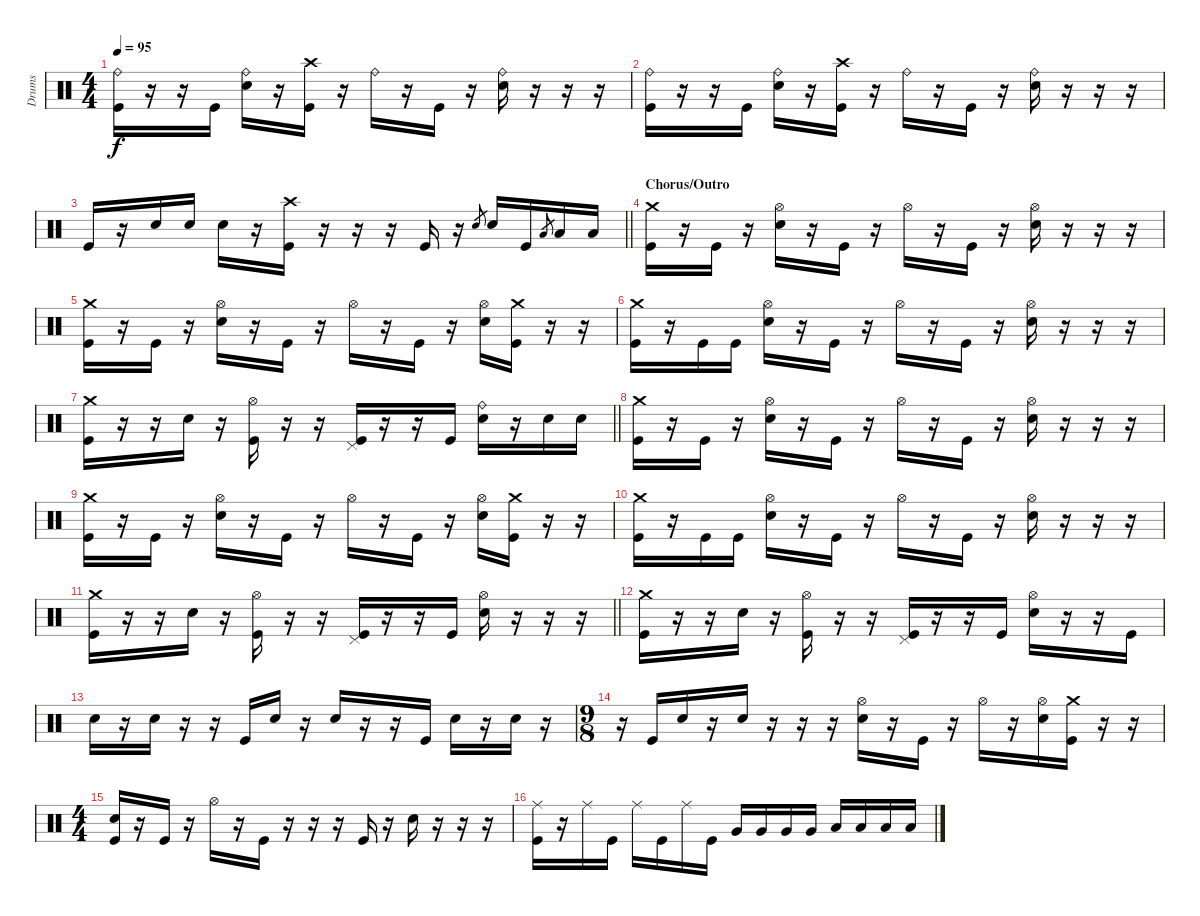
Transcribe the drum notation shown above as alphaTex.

\track ("Drums" "Drums") {instrument percussion}
\staff {score}
\articulation defaults
\ts (4 4)
\tempo 95
\clef neutral
\ks c
("Ride (bell)" "Kick (hit)").16{dy f} r.16 r.16 "Kick (hit)".16 ("Ride (bell)" "Electric Snare (hit)").16 r.16 ("Crash high (hit)" "Kick (hit)").16 r.16 "Ride (bell)".16 r.16 "Kick (hit)".16 r.16 ("Ride (bell)" "Electric Snare (hit)").16 r.16 r.16 r.16 |
("Ride (bell)" "Kick (hit)").16 r.16 r.16 "Kick (hit)".16 ("Ride (bell)" "Electric Snare (hit)").16 r.16 ("Crash high (hit)" "Kick (hit)").16 r.16 "Ride (bell)".16 r.16 "Kick (hit)".16 r.16 ("Ride (bell)" "Electric Snare (hit)").16 r.16 r.16 r.16 |
\barLineRight lightlight "Kick (hit)".16
r.16 "Electric Snare (hit)".16 "Electric Snare (hit)".16 "Electric Snare (hit)".16 r.16 ("Crash high (hit)" "Kick (hit)").16 r.16 r.16 r.16 "Kick (hit)".16 r.16 "Electric Snare (hit)".8{gr} "Electric Snare (hit)".16 "Kick (hit)".16 "Low Floor Tom (hit)".8{gr} "Low Floor Tom (hit)".16 "Low Floor Tom (hit)".16 |
\section ("" "Chorus/Outro")
("Crash medium (hit)" "Kick (hit)").16 r.16 "Kick (hit)".16 r.16 ("Hi-Hat (open)" "Electric Snare (hit)").16 r.16 "Kick (hit)".16 r.16 "Hi-Hat (open)".16 r.16 "Kick (hit)".16 r.16 ("Hi-Hat (open)" "Electric Snare (hit)").16 r.16 r.16 r.16 |
("Crash medium (hit)" "Kick (hit)").16 r.16 "Kick (hit)".16 r.16 ("Hi-Hat (open)" "Electric Snare (hit)").16 r.16 "Kick (hit)".16 r.16 "Hi-Hat (open)".16 r.16 "Kick (hit)".16 r.16 ("Hi-Hat (open)" "Electric Snare (hit)").16 ("Crash medium (hit)" "Kick (hit)").16 r.16 r.16 |
("Crash medium (hit)" "Kick (hit)").16 r.16 "Kick (hit)".16 "Kick (hit)".16 ("Hi-Hat (open)" "Electric Snare (hit)").16 r.16 "Kick (hit)".16 r.16 "Hi-Hat (open)".16 r.16 "Kick (hit)".16 r.16 ("Hi-Hat (open)" "Electric Snare (hit)").16 r.16 r.16 r.16 |
\barLineRight lightlight
("Crash medium (hit)" "Kick (hit)").16 r.16 r.16 "Electric Snare (hit)".16 r.16 ("Hi-Hat (open)" "Kick (hit)").16 r.16 r.16 ("Pedal Hi-Hat (hit)" "Kick (hit)").16 r.16 r.16 "Kick (hit)".16 ("Ride (bell)" "Electric Snare (hit)").16 r.16 "Electric Snare (hit)".16 "Electric Snare (hit)".16 |
("Crash medium (hit)" "Kick (hit)").16 r.16 "Kick (hit)".16 r.16 ("Hi-Hat (open)" "Electric Snare (hit)").16 r.16 "Kick (hit)".16 r.16 "Hi-Hat (open)".16 r.16 "Kick (hit)".16 r.16 ("Hi-Hat (open)" "Electric Snare (hit)").16 r.16 r.16 r.16 |
("Crash medium (hit)" "Kick (hit)").16 r.16 "Kick (hit)".16 r.16 ("Hi-Hat (open)" "Electric Snare (hit)").16 r.16 "Kick (hit)".16 r.16 "Hi-Hat (open)".16 r.16 "Kick (hit)".16 r.16 ("Hi-Hat (open)" "Electric Snare (hit)").16 ("Crash medium (hit)" "Kick (hit)").16 r.16 r.16 |
("Crash medium (hit)" "Kick (hit)").16 r.16 "Kick (hit)".16 "Kick (hit)".16 ("Hi-Hat (open)" "Electric Snare (hit)").16 r.16 "Kick (hit)".16 r.16 "Hi-Hat (open)".16 r.16 "Kick (hit)".16 r.16 ("Hi-Hat (open)" "Electric Snare (hit)").16 r.16 r.16 r.16 |
\barLineRight lightlight
("Crash medium (hit)" "Kick (hit)").16 r.16 r.16 "Electric Snare (hit)".16 r.16 ("Hi-Hat (open)" "Kick (hit)").16 r.16 r.16 ("Pedal Hi-Hat (hit)" "Kick (hit)").16 r.16 r.16 "Kick (hit)".16 ("Hi-Hat (open)" "Electric Snare (hit)").16 r.16 r.16 r.16 |
("Crash medium (hit)" "Kick (hit)").16 r.16 r.16 "Electric Snare (hit)".16 r.16 ("Hi-Hat (open)" "Kick (hit)").16 r.16 r.16 ("Pedal Hi-Hat (hit)" "Kick (hit)").16 r.16 r.16 "Kick (hit)".16 ("Hi-Hat (open)" "Electric Snare (hit)").16 r.16 r.16 "Kick (hit)".16 |
"Electric Snare (hit)".16 r.16 "Electric Snare (hit)".16 r.16 r.16 "Kick (hit)".16 "Electric Snare (hit)".16 r.16 "Electric Snare (hit)".16 r.16 r.16 "Kick (hit)".16 "Electric Snare (hit)".16 r.16 "Electric Snare (hit)".16 r.16 |
\ts (9 8)
r.16 "Kick (hit)".16 "Electric Snare (hit)".16 r.16 "Electric Snare (hit)".16 r.16 r.16 r.16 ("Hi-Hat (open)" "Electric Snare (hit)").16 r.16 "Kick (hit)".16 r.16 "Hi-Hat (open)".16 r.16 ("Hi-Hat (open)" "Electric Snare (hit)").16 ("Crash medium (hit)" "Kick (hit)").16 r.16 r.16 |
\ts (4 4)
("Electric Snare (hit)" "Kick (hit)").16 r.16 "Kick (hit)".16 r.16 "Hi-Hat (open)".16 r.16 "Kick (hit)".16 r.16 r.16 r.16 "Kick (hit)".16 r.16 "Electric Snare (hit)".16 r.16 r.16 r.16 |
("Ride (middle)" "Kick (hit)").16 r.16 "Ride (middle)".16 "Kick (hit)".16 "Ride (middle)".16 "Kick (hit)".16 "Ride (middle)".16 "Kick (hit)".16 "Very Low Tom (hit)".16 "Very Low Tom (hit)".16 "Very Low Tom (hit)".16 "Very Low Tom (hit)".16 "Low Floor Tom (hit)".16 "Low Floor Tom (hit)".16 "Low Floor Tom (hit)".16 "Low Floor Tom (hit)".16
